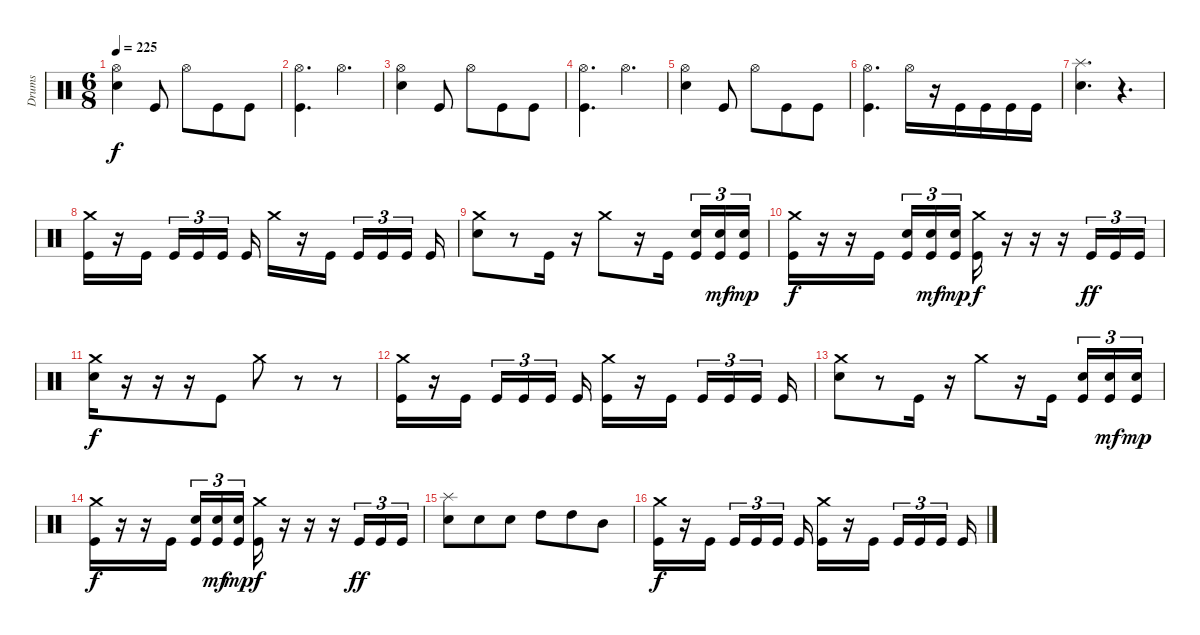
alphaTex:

\track ("Drums" "Drums") {instrument percussion}
\staff {score}
\articulation defaults
\ts (6 8)
\tempo 225
\clef neutral
\ks c
("Snare (hit) 2" "Hi-Hat (open)").4{dy f} "Kick (hit)".8 "Hi-Hat (open)".8 "Kick (hit)".8 "Kick (hit)".8 |
("Kick (hit)" "Hi-Hat (open)").4{d} "Hi-Hat (open)".4{d} |
("Snare (hit) 2" "Hi-Hat (open)").4 "Kick (hit)".8 "Hi-Hat (open)".8 "Kick (hit)".8 "Kick (hit)".8 |
("Kick (hit)" "Hi-Hat (open)").4{d} "Hi-Hat (open)".4{d} |
("Snare (hit) 2" "Hi-Hat (open)").4 "Kick (hit)".8 "Hi-Hat (open)".8 "Kick (hit)".8 "Kick (hit)".8 |
("Kick (hit)" "Hi-Hat (open)").4{d} "Hi-Hat (open)".16 r.16 "Kick (hit)".16 "Kick (hit)".16 "Kick (hit)".16 "Kick (hit)".16 |
("Snare (hit) 2" "Splash (hit)").4{d} r.4{d} |
("Kick (hit)" "Crash medium (hit)").16 r.16 "Kick (hit)".16{beam splitsecondary} "Kick (hit)".16{tu (3 2)} "Kick (hit)".16{tu (3 2)} "Kick (hit)".16{tu (3 2) beam splitsecondary} "Kick (hit)".16 "Crash medium (hit)".16 r.16 "Kick (hit)".16{beam splitsecondary} "Kick (hit)".16{tu (3 2)} "Kick (hit)".16{tu (3 2)} "Kick (hit)".16{tu (3 2) beam splitsecondary} "Kick (hit)".16 |
("Snare (hit) 2" "Crash medium (hit)").8 r.8 "Kick (hit)".16 r.16 "Crash medium (hit)".8 r.16 "Kick (hit)".16{beam splitsecondary} ("Kick (hit)" "Snare (hit) 2").16{tu (3 2)} ("Kick (hit)" "Snare (hit) 2").16{tu (3 2) dy mf} ("Kick (hit)" "Snare (hit) 2").16{tu (3 2) dy mp} |
("Kick (hit)" "Crash medium (hit)").16{dy f} r.16 r.16 "Kick (hit)".16{beam splitsecondary} ("Kick (hit)" "Snare (hit) 2").16{tu (3 2)} ("Kick (hit)" "Snare (hit) 2").16{tu (3 2) dy mf} ("Kick (hit)" "Snare (hit) 2").16{tu (3 2) dy mp} ("Kick (hit)" "Crash medium (hit)").16{dy f} r.16 r.16 r.16 "Kick (hit)".16{tu (3 2) dy ff} "Kick (hit)".16{tu (3 2)} "Kick (hit)".16{tu (3 2)} |
("Snare (hit) 2" "Crash medium (hit)").16{dy f} r.16 r.16 r.16 "Kick (hit)".8 "Crash medium (hit)".8 r.8 r.8 |
("Kick (hit)" "Crash medium (hit)").16 r.16 "Kick (hit)".16{beam splitsecondary} "Kick (hit)".16{tu (3 2)} "Kick (hit)".16{tu (3 2)} "Kick (hit)".16{tu (3 2) beam splitsecondary} "Kick (hit)".16 ("Kick (hit)" "Crash medium (hit)").16 r.16 "Kick (hit)".16{beam splitsecondary} "Kick (hit)".16{tu (3 2)} "Kick (hit)".16{tu (3 2)} "Kick (hit)".16{tu (3 2) beam splitsecondary} "Kick (hit)".16 |
("Snare (hit) 2" "Crash medium (hit)").8 r.8 "Kick (hit)".16 r.16 "Crash medium (hit)".8 r.16 "Kick (hit)".16{beam splitsecondary} ("Kick (hit)" "Snare (hit) 2").16{tu (3 2)} ("Kick (hit)" "Snare (hit) 2").16{tu (3 2) dy mf} ("Kick (hit)" "Snare (hit) 2").16{tu (3 2) dy mp} |
("Kick (hit)" "Crash medium (hit)").16{dy f} r.16 r.16 "Kick (hit)".16{beam splitsecondary} ("Kick (hit)" "Snare (hit) 2").16{tu (3 2)} ("Kick (hit)" "Snare (hit) 2").16{tu (3 2) dy mf} ("Kick (hit)" "Snare (hit) 2").16{tu (3 2) dy mp} ("Kick (hit)" "Crash medium (hit)").16{dy f} r.16 r.16 r.16 "Kick (hit)".16{tu (3 2) dy ff} "Kick (hit)".16{tu (3 2)} "Kick (hit)".16{tu (3 2)} |
("Splash (hit)" "Snare (hit) 2").8 "Snare (hit) 2".8 "Snare (hit) 2".8 "High Tom (hit)".8 "High Tom (hit)".8 "Mid Tom (hit)".8 |
("Kick (hit)" "Crash medium (hit)").16{dy f} r.16 "Kick (hit)".16{beam splitsecondary} "Kick (hit)".16{tu (3 2)} "Kick (hit)".16{tu (3 2)} "Kick (hit)".16{tu (3 2) beam splitsecondary} "Kick (hit)".16 ("Kick (hit)" "Crash medium (hit)").16 r.16 "Kick (hit)".16{beam splitsecondary} "Kick (hit)".16{tu (3 2)} "Kick (hit)".16{tu (3 2)} "Kick (hit)".16{tu (3 2) beam splitsecondary} "Kick (hit)".16
